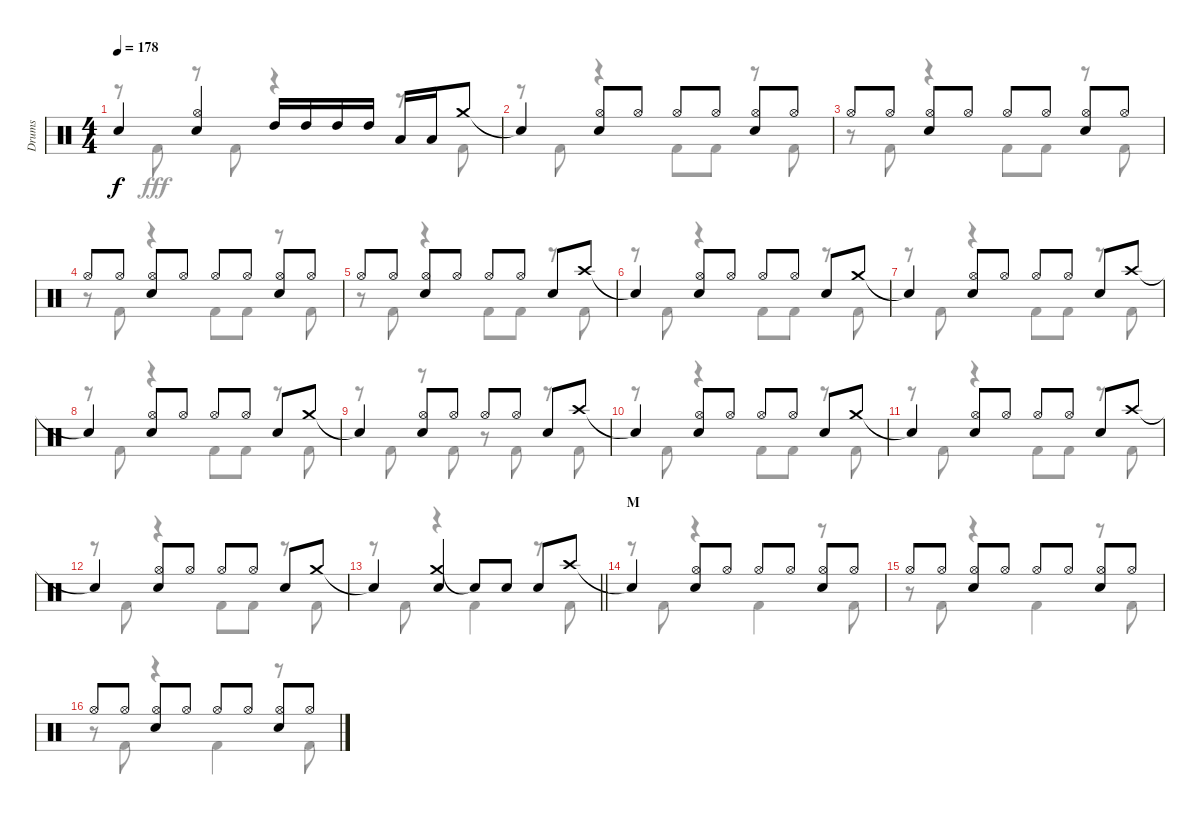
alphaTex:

\track ("Drums" "Drums") {instrument percussion}
\staff {score}
\articulation defaults
\voice
\ts (4 4)
\tempo 178
\clef neutral
\ks c "Snare (hit)"{t}.4{dy f}
("Hi-Hat (open)" "Snare (hit) 2").4 "High Tom (hit)".16 "High Tom (hit)".16 "High Tom (hit)".16 "High Tom (hit)".16 "Low Tom (hit)".16 "Low Tom (hit)".16 "Crash medium (hit)".8 |
"Snare (hit)"{t}.4 ("Hi-Hat (open)" "Snare (hit) 2").8 "Hi-Hat (open)".8 "Hi-Hat (open)".8 "Hi-Hat (open)".8 ("Hi-Hat (open)" "Snare (hit) 2").8 "Hi-Hat (open)".8 |
"Hi-Hat (open)".8 "Hi-Hat (open)".8 ("Hi-Hat (open)" "Snare (hit) 2").8 "Hi-Hat (open)".8 "Hi-Hat (open)".8 "Hi-Hat (open)".8 ("Hi-Hat (open)" "Snare (hit) 2").8 "Hi-Hat (open)".8 |
"Hi-Hat (open)".8 "Hi-Hat (open)".8 ("Hi-Hat (open)" "Snare (hit) 2").8 "Hi-Hat (open)".8 "Hi-Hat (open)".8 "Hi-Hat (open)".8 ("Hi-Hat (open)" "Snare (hit) 2").8 "Hi-Hat (open)".8 |
"Hi-Hat (open)".8 "Hi-Hat (open)".8 ("Hi-Hat (open)" "Snare (hit) 2").8 "Hi-Hat (open)".8 "Hi-Hat (open)".8 "Hi-Hat (open)".8 "Snare (hit) 2".8 "Crash high (hit)".8 |
"Snare (hit)"{t}.4 ("Hi-Hat (open)" "Snare (hit) 2").8 "Hi-Hat (open)".8 "Hi-Hat (open)".8 "Hi-Hat (open)".8 "Snare (hit) 2".8 "Crash medium (hit)".8 |
"Snare (hit)"{t}.4 ("Hi-Hat (open)" "Snare (hit) 2").8 "Hi-Hat (open)".8 "Hi-Hat (open)".8 "Hi-Hat (open)".8 "Snare (hit) 2".8 "Crash high (hit)".8 |
"Snare (hit)"{t}.4 ("Hi-Hat (open)" "Snare (hit) 2").8 "Hi-Hat (open)".8 "Hi-Hat (open)".8 "Hi-Hat (open)".8 "Snare (hit) 2".8 "Crash medium (hit)".8 |
"Snare (hit)"{t}.4 ("Hi-Hat (open)" "Snare (hit) 2").8 "Hi-Hat (open)".8 "Hi-Hat (open)".8 "Hi-Hat (open)".8 "Snare (hit) 2".8 "Crash high (hit)".8 |
"Snare (hit)"{t}.4 ("Hi-Hat (open)" "Snare (hit) 2").8 "Hi-Hat (open)".8 "Hi-Hat (open)".8 "Hi-Hat (open)".8 "Snare (hit) 2".8 "Crash medium (hit)".8 |
"Snare (hit)"{t}.4 ("Hi-Hat (open)" "Snare (hit) 2").8 "Hi-Hat (open)".8 "Hi-Hat (open)".8 "Hi-Hat (open)".8 "Snare (hit) 2".8 "Crash high (hit)".8 |
"Snare (hit)"{t}.4 ("Hi-Hat (open)" "Snare (hit) 2").8 "Hi-Hat (open)".8 "Hi-Hat (open)".8 "Hi-Hat (open)".8 "Snare (hit) 2".8 "Crash medium (hit)".8 |
\barLineRight lightlight "Snare (hit)"{t}.4
("Crash medium (hit)" "Snare (hit) 2").4 "Snare (hit)"{t}.8 "Snare (hit) 2".8 "Snare (hit) 2".8 "Crash high (hit)".8 |
\section ("" "M")
"Snare (hit)"{t}.4 ("Hi-Hat (open)" "Snare (hit) 2").8 "Hi-Hat (open)".8 "Hi-Hat (open)".8 "Hi-Hat (open)".8 ("Hi-Hat (open)" "Snare (hit) 2").8 "Hi-Hat (open)".8 |
"Hi-Hat (open)".8 "Hi-Hat (open)".8 ("Hi-Hat (open)" "Snare (hit) 2").8 "Hi-Hat (open)".8 "Hi-Hat (open)".8 "Hi-Hat (open)".8 ("Hi-Hat (open)" "Snare (hit) 2").8 "Hi-Hat (open)".8 |
"Hi-Hat (open)".8 "Hi-Hat (open)".8 ("Hi-Hat (open)" "Snare (hit) 2").8 "Hi-Hat (open)".8 "Hi-Hat (open)".8 "Hi-Hat (open)".8 ("Hi-Hat (open)" "Snare (hit) 2").8 "Hi-Hat (open)".8
\voice
\clef neutral
\ottava regular
\simile none
\ks c
r.8{dy fff} "Kick (hit) 2".8 r.8 "Kick (hit) 2".8 r.4 r.8 "Kick (hit) 2".8 |
r.8 "Kick (hit) 2".8 r.4 "Kick (hit) 2".8 "Kick (hit) 2".8 r.8 "Kick (hit) 2".8 |
r.8 "Kick (hit) 2".8 r.4 "Kick (hit) 2".8 "Kick (hit) 2".8 r.8 "Kick (hit) 2".8 |
r.8 "Kick (hit) 2".8 r.4 "Kick (hit) 2".8 "Kick (hit) 2".8 r.8 "Kick (hit) 2".8 |
r.8 "Kick (hit) 2".8 r.4 "Kick (hit) 2".8 "Kick (hit) 2".8 r.8 "Kick (hit) 2".8 |
r.8 "Kick (hit) 2".8 r.4 "Kick (hit) 2".8 "Kick (hit) 2".8 r.8 "Kick (hit) 2".8 |
r.8 "Kick (hit) 2".8 r.4 "Kick (hit) 2".8 "Kick (hit) 2".8 r.8 "Kick (hit) 2".8 |
r.8 "Kick (hit) 2".8 r.4 "Kick (hit) 2".8 "Kick (hit) 2".8 r.8 "Kick (hit) 2".8 |
r.8 "Kick (hit) 2".8 r.8 "Kick (hit) 2".8 r.8 "Kick (hit) 2".8 r.8 "Kick (hit) 2".8 |
r.8 "Kick (hit) 2".8 r.4 "Kick (hit) 2".8 "Kick (hit) 2".8 r.8 "Kick (hit) 2".8 |
r.8 "Kick (hit) 2".8 r.4 "Kick (hit) 2".8 "Kick (hit) 2".8 r.8 "Kick (hit) 2".8 |
r.8 "Kick (hit) 2".8 r.4 "Kick (hit) 2".8 "Kick (hit) 2".8 r.8 "Kick (hit) 2".8 |
\barLineRight lightlight
r.8 "Kick (hit) 2".8 r.4 "Kick (hit) 2".4 r.8 "Kick (hit) 2".8 |
r.8 "Kick (hit) 2".8 r.4 "Kick (hit) 2".4 r.8 "Kick (hit) 2".8 |
r.8 "Kick (hit) 2".8 r.4 "Kick (hit) 2".4 r.8 "Kick (hit) 2".8 |
r.8 "Kick (hit) 2".8 r.4 "Kick (hit) 2".4 r.8 "Kick (hit) 2".8
